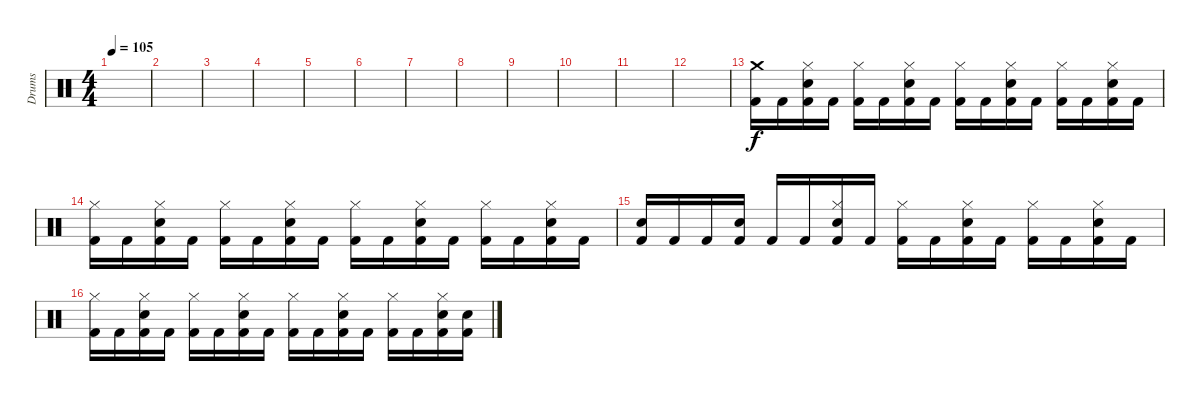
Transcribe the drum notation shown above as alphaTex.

\track ("Drums" "Drums") {instrument percussion}
\staff {score}
\articulation defaults
\ts (4 4)
\tempo 105
\clef neutral
\ks c
|
|
|
|
|
|
|
|
|
|
|
|
("Crash medium (hit)" "Kick (hit) 2").16 "Kick (hit) 2".16 ("Hi-Hat (closed)" "Electric Snare (hit)" "Kick (hit) 2").16 "Kick (hit) 2".16 ("Hi-Hat (closed)" "Kick (hit) 2").16 "Kick (hit) 2".16 ("Hi-Hat (closed)" "Electric Snare (hit)" "Kick (hit) 2").16 "Kick (hit) 2".16 ("Hi-Hat (closed)" "Kick (hit) 2").16 "Kick (hit) 2".16 ("Hi-Hat (closed)" "Electric Snare (hit)" "Kick (hit) 2").16 "Kick (hit) 2".16 ("Hi-Hat (closed)" "Kick (hit) 2").16 "Kick (hit) 2".16 ("Hi-Hat (closed)" "Electric Snare (hit)" "Kick (hit) 2").16 "Kick (hit) 2".16 |
("Hi-Hat (closed)" "Kick (hit) 2").16 "Kick (hit) 2".16 ("Hi-Hat (closed)" "Electric Snare (hit)" "Kick (hit) 2").16 "Kick (hit) 2".16 ("Hi-Hat (closed)" "Kick (hit) 2").16 "Kick (hit) 2".16 ("Hi-Hat (closed)" "Electric Snare (hit)" "Kick (hit) 2").16 "Kick (hit) 2".16 ("Hi-Hat (closed)" "Kick (hit) 2").16 "Kick (hit) 2".16 ("Hi-Hat (closed)" "Electric Snare (hit)" "Kick (hit) 2").16 "Kick (hit) 2".16 ("Hi-Hat (closed)" "Kick (hit) 2").16 "Kick (hit) 2".16 ("Hi-Hat (closed)" "Electric Snare (hit)" "Kick (hit) 2").16 "Kick (hit) 2".16 |
("Electric Snare (hit)" "Kick (hit) 2").16 "Kick (hit) 2".16 "Kick (hit) 2".16 ("Electric Snare (hit)" "Kick (hit) 2").16 "Kick (hit) 2".16 "Kick (hit) 2".16 ("Hi-Hat (closed)" "Electric Snare (hit)" "Kick (hit) 2").16 "Kick (hit) 2".16 ("Hi-Hat (closed)" "Kick (hit) 2").16 "Kick (hit) 2".16 ("Hi-Hat (closed)" "Electric Snare (hit)" "Kick (hit) 2").16 "Kick (hit) 2".16 ("Hi-Hat (closed)" "Kick (hit) 2").16 "Kick (hit) 2".16 ("Hi-Hat (closed)" "Electric Snare (hit)" "Kick (hit) 2").16 "Kick (hit) 2".16 |
("Hi-Hat (closed)" "Kick (hit) 2").16 "Kick (hit) 2".16 ("Hi-Hat (closed)" "Electric Snare (hit)" "Kick (hit) 2").16 "Kick (hit) 2".16 ("Hi-Hat (closed)" "Kick (hit) 2").16 "Kick (hit) 2".16 ("Hi-Hat (closed)" "Electric Snare (hit)" "Kick (hit) 2").16 "Kick (hit) 2".16 ("Hi-Hat (closed)" "Kick (hit) 2").16 "Kick (hit) 2".16 ("Hi-Hat (closed)" "Electric Snare (hit)" "Kick (hit) 2").16 "Kick (hit) 2".16 ("Hi-Hat (closed)" "Kick (hit) 2").16 "Kick (hit) 2".16 ("Hi-Hat (closed)" "Electric Snare (hit)" "Kick (hit) 2").16 ("Electric Snare (hit)" "Kick (hit) 2").16
